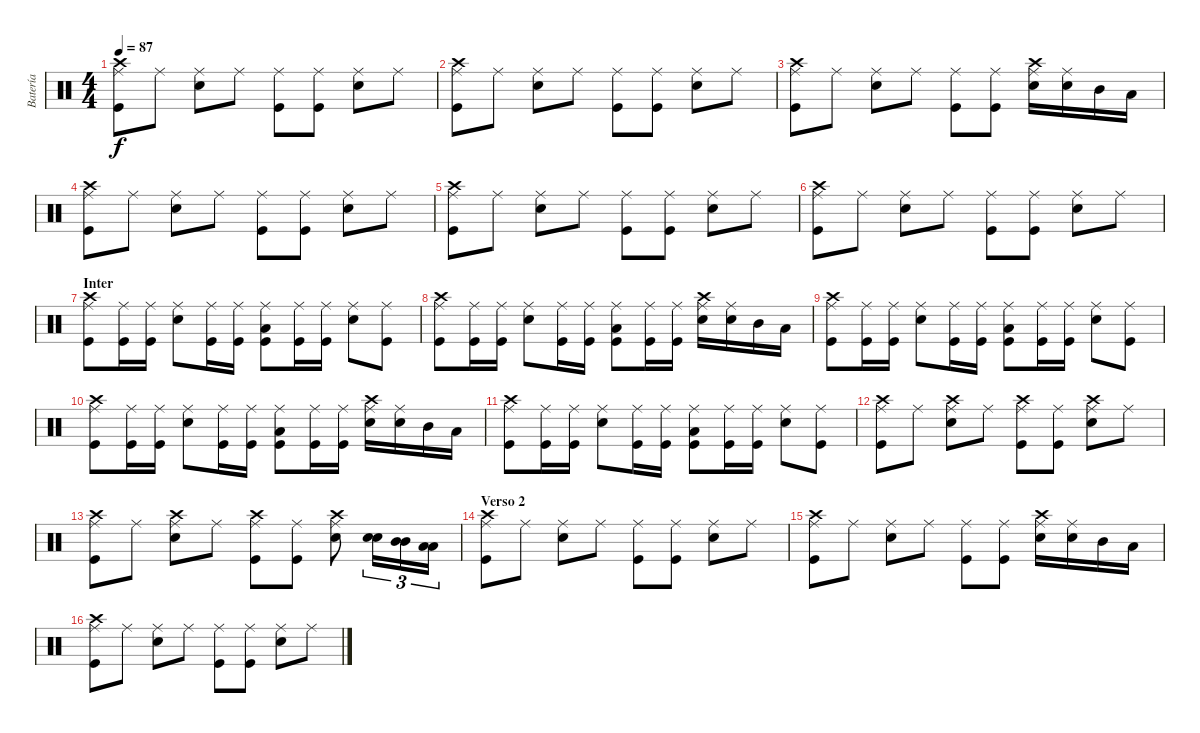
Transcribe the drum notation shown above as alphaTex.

\track ("Batería" "Batería") {instrument percussion}
\staff {score}
\articulation defaults
\ts (4 4)
\tempo 87
\clef neutral
\ks c
("Crash high (hit)" "Ride (middle)" "Kick (hit)").8{dy f} "Ride (middle)".8 ("Ride (middle)" "Snare (hit) 2").8 "Ride (middle)".8 ("Ride (middle)" "Kick (hit)").8 ("Ride (middle)" "Kick (hit)").8 ("Ride (middle)" "Snare (hit) 2").8 "Ride (middle)".8 |
("Crash high (hit)" "Ride (middle)" "Kick (hit)").8 "Ride (middle)".8 ("Ride (middle)" "Snare (hit) 2").8 "Ride (middle)".8 ("Ride (middle)" "Kick (hit)").8 ("Ride (middle)" "Kick (hit)").8 ("Ride (middle)" "Snare (hit) 2").8 "Ride (middle)".8 |
("Crash high (hit)" "Ride (middle)" "Kick (hit)").8 "Ride (middle)".8 ("Ride (middle)" "Snare (hit) 2").8 "Ride (middle)".8 ("Ride (middle)" "Kick (hit)").8 ("Ride (middle)" "Kick (hit)").8 ("Crash high (hit)" "Ride (middle)" "Snare (hit) 2").16 ("Ride (middle)" "Snare (hit) 2").16 "Mid Tom (hit)".16 "Low Tom (hit)".16 |
("Crash high (hit)" "Ride (middle)" "Kick (hit)").8 "Ride (middle)".8 ("Ride (middle)" "Snare (hit) 2").8 "Ride (middle)".8 ("Ride (middle)" "Kick (hit)").8 ("Ride (middle)" "Kick (hit)").8 ("Ride (middle)" "Snare (hit) 2").8 "Ride (middle)".8 |
("Crash high (hit)" "Ride (middle)" "Kick (hit)").8 "Ride (middle)".8 ("Ride (middle)" "Snare (hit) 2").8 "Ride (middle)".8 ("Ride (middle)" "Kick (hit)").8 ("Ride (middle)" "Kick (hit)").8 ("Ride (middle)" "Snare (hit) 2").8 "Ride (middle)".8 |
("Crash high (hit)" "Ride (middle)" "Kick (hit)").8 "Ride (middle)".8 ("Ride (middle)" "Snare (hit) 2").8 "Ride (middle)".8 ("Ride (middle)" "Kick (hit)").8 ("Ride (middle)" "Kick (hit)").8 ("Ride (middle)" "Snare (hit) 2").8 "Ride (middle)".8 |
\section ("" "Inter")
("Crash high (hit)" "Ride (middle)" "Kick (hit)").8 ("Ride (middle)" "Kick (hit)").16 ("Ride (middle)" "Kick (hit)").16 ("Ride (middle)" "Snare (hit) 2").8 ("Ride (middle)" "Kick (hit)").16 ("Ride (middle)" "Kick (hit)").16 ("Ride (middle)" "Low Tom (hit)" "Kick (hit)").8 ("Ride (middle)" "Kick (hit)").16 ("Ride (middle)" "Kick (hit)").16 ("Ride (middle)" "Snare (hit) 2").8 ("Ride (middle)" "Kick (hit)").8 |
("Crash high (hit)" "Ride (middle)" "Kick (hit)").8 ("Ride (middle)" "Kick (hit)").16 ("Ride (middle)" "Kick (hit)").16 ("Ride (middle)" "Snare (hit) 2").8 ("Ride (middle)" "Kick (hit)").16 ("Ride (middle)" "Kick (hit)").16 ("Ride (middle)" "Low Tom (hit)" "Kick (hit)").8 ("Ride (middle)" "Kick (hit)").16 ("Ride (middle)" "Kick (hit)").16 ("Crash high (hit)" "Ride (middle)" "Snare (hit) 2").16 ("Ride (middle)" "Snare (hit) 2").16 "Mid Tom (hit)".16 "Low Tom (hit)".16 |
("Crash high (hit)" "Ride (middle)" "Kick (hit)").8 ("Ride (middle)" "Kick (hit)").16 ("Ride (middle)" "Kick (hit)").16 ("Ride (middle)" "Snare (hit) 2").8 ("Ride (middle)" "Kick (hit)").16 ("Ride (middle)" "Kick (hit)").16 ("Ride (middle)" "Low Tom (hit)" "Kick (hit)").8 ("Ride (middle)" "Kick (hit)").16 ("Ride (middle)" "Kick (hit)").16 ("Ride (middle)" "Snare (hit) 2").8 ("Ride (middle)" "Kick (hit)").8 |
("Crash high (hit)" "Ride (middle)" "Kick (hit)").8 ("Ride (middle)" "Kick (hit)").16 ("Ride (middle)" "Kick (hit)").16 ("Ride (middle)" "Snare (hit) 2").8 ("Ride (middle)" "Kick (hit)").16 ("Ride (middle)" "Kick (hit)").16 ("Ride (middle)" "Low Tom (hit)" "Kick (hit)").8 ("Ride (middle)" "Kick (hit)").16 ("Ride (middle)" "Kick (hit)").16 ("Crash high (hit)" "Ride (middle)" "Snare (hit) 2").16 ("Ride (middle)" "Snare (hit) 2").16 "Mid Tom (hit)".16 "Low Tom (hit)".16 |
("Crash high (hit)" "Ride (middle)" "Kick (hit)").8 ("Ride (middle)" "Kick (hit)").16 ("Ride (middle)" "Kick (hit)").16 ("Ride (middle)" "Snare (hit) 2").8 ("Ride (middle)" "Kick (hit)").16 ("Ride (middle)" "Kick (hit)").16 ("Ride (middle)" "Low Tom (hit)" "Kick (hit)").8 ("Ride (middle)" "Kick (hit)").16 ("Ride (middle)" "Kick (hit)").16 ("Ride (middle)" "Snare (hit) 2").8 ("Ride (middle)" "Kick (hit)").8 |
("Crash high (hit)" "Ride (middle)" "Kick (hit)").8 "Ride (middle)".8 ("Crash high (hit)" "Ride (middle)" "Snare (hit) 2").8 "Ride (middle)".8 ("Crash high (hit)" "Ride (middle)" "Kick (hit)").8 ("Ride (middle)" "Kick (hit)").8 ("Crash high (hit)" "Ride (middle)" "Snare (hit) 2").8 "Ride (middle)".8 |
("Crash high (hit)" "Ride (middle)" "Kick (hit)").8 "Ride (middle)".8 ("Crash high (hit)" "Ride (middle)" "Snare (hit) 2").8 "Ride (middle)".8 ("Crash high (hit)" "Ride (middle)" "Kick (hit)").8 ("Ride (middle)" "Kick (hit)").8 ("Crash high (hit)" "Ride (middle)" "Snare (hit) 2").8 ("Snare (hit) 2" "Snare (hit) 2").16{tu (3 2)} ("Mid Tom (hit)" "Mid Tom (hit)").16{tu (3 2)} ("Low Tom (hit)" "Low Tom (hit)").16{tu (3 2)} |
\section ("" "Verso 2")
("Crash high (hit)" "Ride (middle)" "Kick (hit)").8 "Ride (middle)".8 ("Ride (middle)" "Snare (hit) 2").8 "Ride (middle)".8 ("Ride (middle)" "Kick (hit)").8 ("Ride (middle)" "Kick (hit)").8 ("Ride (middle)" "Snare (hit) 2").8 "Ride (middle)".8 |
("Crash high (hit)" "Ride (middle)" "Kick (hit)").8 "Ride (middle)".8 ("Ride (middle)" "Snare (hit) 2").8 "Ride (middle)".8 ("Ride (middle)" "Kick (hit)").8 ("Ride (middle)" "Kick (hit)").8 ("Crash high (hit)" "Ride (middle)" "Snare (hit) 2").16 ("Ride (middle)" "Snare (hit) 2").16 "Mid Tom (hit)".16 "Low Tom (hit)".16 |
("Crash high (hit)" "Ride (middle)" "Kick (hit)").8 "Ride (middle)".8 ("Ride (middle)" "Snare (hit) 2").8 "Ride (middle)".8 ("Ride (middle)" "Kick (hit)").8 ("Ride (middle)" "Kick (hit)").8 ("Ride (middle)" "Snare (hit) 2").8 "Ride (middle)".8
